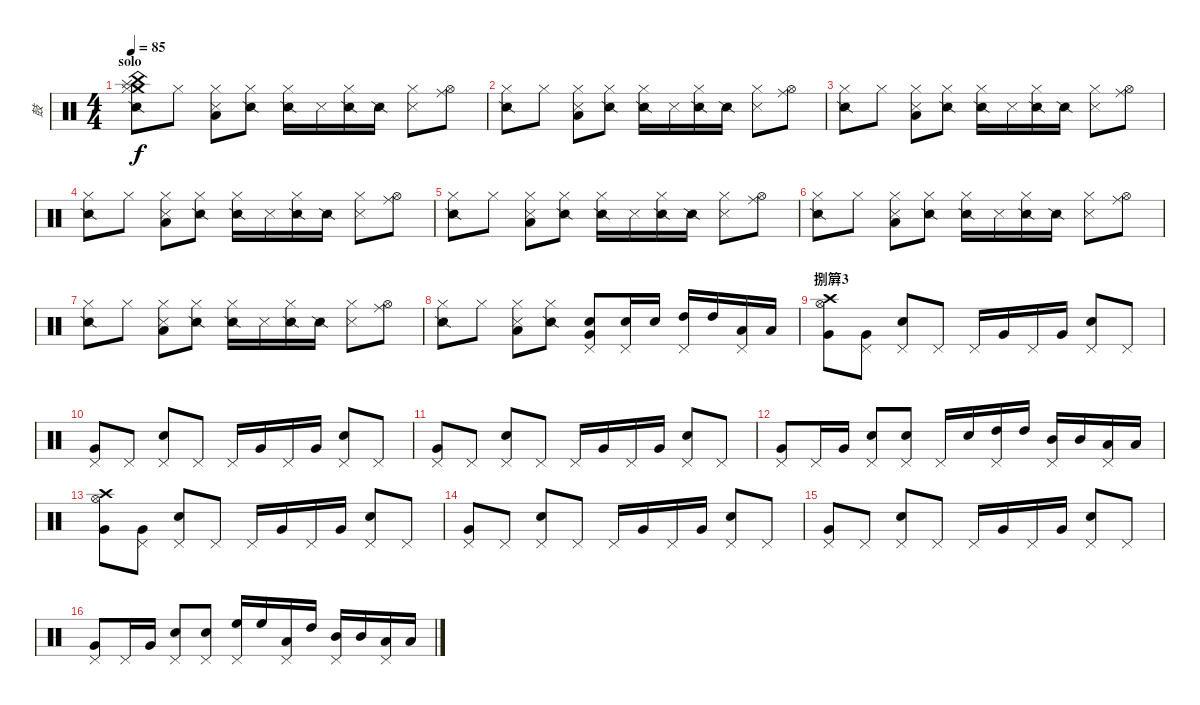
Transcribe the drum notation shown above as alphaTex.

\track ("鼓" "鼓") {instrument percussion}
\staff {score}
\articulation defaults
\ts (4 4)
\section ("" "solo")
\tempo 85
\clef neutral
\ks c
("Crash medium (hit)" "Splash (hit)" "China (hit)" "Snare (side stick) 2" "Hi-Hat (closed)").8{dy f} "Hi-Hat (closed)".8 ("Metronome (hit)" "Low Floor Tom (hit)" "Hi-Hat (closed)").8 ("Snare (side stick) 2" "Hi-Hat (closed)").8 ("Snare (side stick) 2" "Hi-Hat (closed)").16 "Metronome (hit)".16 ("Snare (side stick) 2" "Hi-Hat (closed)").16 "Snare (side stick) 2".16 ("Metronome (hit)" "Hi-Hat (closed)").8 ("Ride (middle)" "Hi-Hat (open)").8 |
("Snare (side stick) 2" "Hi-Hat (closed)").8 "Hi-Hat (closed)".8 ("Metronome (hit)" "Low Floor Tom (hit)" "Hi-Hat (closed)").8 ("Snare (side stick) 2" "Hi-Hat (closed)").8 ("Snare (side stick) 2" "Hi-Hat (closed)").16 "Metronome (hit)".16 ("Snare (side stick) 2" "Hi-Hat (closed)").16 "Snare (side stick) 2".16 ("Metronome (hit)" "Hi-Hat (closed)").8 ("Ride (middle)" "Hi-Hat (open)").8 |
("Snare (side stick) 2" "Hi-Hat (closed)").8 "Hi-Hat (closed)".8 ("Metronome (hit)" "Low Floor Tom (hit)" "Hi-Hat (closed)").8 ("Snare (side stick) 2" "Hi-Hat (closed)").8 ("Snare (side stick) 2" "Hi-Hat (closed)").16 "Metronome (hit)".16 ("Snare (side stick) 2" "Hi-Hat (closed)").16 "Snare (side stick) 2".16 ("Metronome (hit)" "Hi-Hat (closed)").8 ("Ride (middle)" "Hi-Hat (open)").8 |
("Snare (side stick) 2" "Hi-Hat (closed)").8 "Hi-Hat (closed)".8 ("Metronome (hit)" "Low Floor Tom (hit)" "Hi-Hat (closed)").8 ("Snare (side stick) 2" "Hi-Hat (closed)").8 ("Snare (side stick) 2" "Hi-Hat (closed)").16 "Metronome (hit)".16 ("Snare (side stick) 2" "Hi-Hat (closed)").16 "Snare (side stick) 2".16 ("Metronome (hit)" "Hi-Hat (closed)").8 ("Ride (middle)" "Hi-Hat (open)").8 |
("Snare (side stick) 2" "Hi-Hat (closed)").8 "Hi-Hat (closed)".8 ("Metronome (hit)" "Low Floor Tom (hit)" "Hi-Hat (closed)").8 ("Snare (side stick) 2" "Hi-Hat (closed)").8 ("Snare (side stick) 2" "Hi-Hat (closed)").16 "Metronome (hit)".16 ("Snare (side stick) 2" "Hi-Hat (closed)").16 "Snare (side stick) 2".16 ("Metronome (hit)" "Hi-Hat (closed)").8 ("Ride (middle)" "Hi-Hat (open)").8 |
("Snare (side stick) 2" "Hi-Hat (closed)").8 "Hi-Hat (closed)".8 ("Metronome (hit)" "Low Floor Tom (hit)" "Hi-Hat (closed)").8 ("Snare (side stick) 2" "Hi-Hat (closed)").8 ("Snare (side stick) 2" "Hi-Hat (closed)").16 "Metronome (hit)".16 ("Snare (side stick) 2" "Hi-Hat (closed)").16 "Snare (side stick) 2".16 ("Metronome (hit)" "Hi-Hat (closed)").8 ("Ride (middle)" "Hi-Hat (open)").8 |
("Snare (side stick) 2" "Hi-Hat (closed)").8 "Hi-Hat (closed)".8 ("Metronome (hit)" "Low Floor Tom (hit)" "Hi-Hat (closed)").8 ("Snare (side stick) 2" "Hi-Hat (closed)").8 ("Snare (side stick) 2" "Hi-Hat (closed)").16 "Metronome (hit)".16 ("Snare (side stick) 2" "Hi-Hat (closed)").16 "Snare (side stick) 2".16 ("Metronome (hit)" "Hi-Hat (closed)").8 ("Ride (middle)" "Hi-Hat (open)").8 |
("Snare (side stick) 2" "Hi-Hat (closed)").8 "Hi-Hat (closed)".8 ("Metronome (hit)" "Low Floor Tom (hit)" "Hi-Hat (closed)").8 ("Snare (side stick) 2" "Hi-Hat (closed)").8 ("Snare (hit) 2" "Very Low Tom (hit)" "Pedal Hi-Hat (hit)").8 ("Snare (hit) 2" "Pedal Hi-Hat (hit)").16 "Snare (hit) 2".16 ("High Tom (hit)" "Pedal Hi-Hat (hit)").16 "High Tom (hit)".16 ("Low Tom (hit)" "Pedal Hi-Hat (hit)").16 "Low Tom (hit)".16 |
\section ("" "捌簈3")
("Crash high (hit)" "Very Low Tom (hit)" "Hi-Hat (open)").8 ("Very Low Tom (hit)" "Pedal Hi-Hat (hit)").8 ("Snare (hit) 2" "Pedal Hi-Hat (hit)").8 "Pedal Hi-Hat (hit)".8 "Pedal Hi-Hat (hit)".16 "Very Low Tom (hit)".16 "Pedal Hi-Hat (hit)".16 "Very Low Tom (hit)".16 ("Snare (hit) 2" "Pedal Hi-Hat (hit)").8 "Pedal Hi-Hat (hit)".8 |
("Very Low Tom (hit)" "Pedal Hi-Hat (hit)").8 "Pedal Hi-Hat (hit)".8 ("Snare (hit) 2" "Pedal Hi-Hat (hit)").8 "Pedal Hi-Hat (hit)".8 "Pedal Hi-Hat (hit)".16 "Very Low Tom (hit)".16 "Pedal Hi-Hat (hit)".16 "Very Low Tom (hit)".16 ("Snare (hit) 2" "Pedal Hi-Hat (hit)").8 "Pedal Hi-Hat (hit)".8 |
("Very Low Tom (hit)" "Pedal Hi-Hat (hit)").8 "Pedal Hi-Hat (hit)".8 ("Snare (hit) 2" "Pedal Hi-Hat (hit)").8 "Pedal Hi-Hat (hit)".8 "Pedal Hi-Hat (hit)".16 "Very Low Tom (hit)".16 "Pedal Hi-Hat (hit)".16 "Very Low Tom (hit)".16 ("Snare (hit) 2" "Pedal Hi-Hat (hit)").8 "Pedal Hi-Hat (hit)".8 |
("Very Low Tom (hit)" "Pedal Hi-Hat (hit)").8 "Pedal Hi-Hat (hit)".16 "Very Low Tom (hit)".16 ("Snare (hit) 2" "Pedal Hi-Hat (hit)").8 ("Snare (hit) 2" "Pedal Hi-Hat (hit)").8 "Pedal Hi-Hat (hit)".16 "Snare (hit) 2".16 ("High Tom (hit)" "Pedal Hi-Hat (hit)").16 "High Tom (hit)".16 ("Mid Tom (hit)" "Pedal Hi-Hat (hit)").16 "Mid Tom (hit)".16 ("Low Tom (hit)" "Pedal Hi-Hat (hit)").16 "Low Tom (hit)".16 |
("Crash high (hit)" "Very Low Tom (hit)" "Hi-Hat (open)").8 ("Very Low Tom (hit)" "Pedal Hi-Hat (hit)").8 ("Snare (hit) 2" "Pedal Hi-Hat (hit)").8 "Pedal Hi-Hat (hit)".8 "Pedal Hi-Hat (hit)".16 "Very Low Tom (hit)".16 "Pedal Hi-Hat (hit)".16 "Very Low Tom (hit)".16 ("Snare (hit) 2" "Pedal Hi-Hat (hit)").8 "Pedal Hi-Hat (hit)".8 |
("Very Low Tom (hit)" "Pedal Hi-Hat (hit)").8 "Pedal Hi-Hat (hit)".8 ("Snare (hit) 2" "Pedal Hi-Hat (hit)").8 "Pedal Hi-Hat (hit)".8 "Pedal Hi-Hat (hit)".16 "Very Low Tom (hit)".16 "Pedal Hi-Hat (hit)".16 "Very Low Tom (hit)".16 ("Snare (hit) 2" "Pedal Hi-Hat (hit)").8 "Pedal Hi-Hat (hit)".8 |
("Very Low Tom (hit)" "Pedal Hi-Hat (hit)").8 "Pedal Hi-Hat (hit)".8 ("Snare (hit) 2" "Pedal Hi-Hat (hit)").8 "Pedal Hi-Hat (hit)".8 "Pedal Hi-Hat (hit)".16 "Very Low Tom (hit)".16 "Pedal Hi-Hat (hit)".16 "Very Low Tom (hit)".16 ("Snare (hit) 2" "Pedal Hi-Hat (hit)").8 "Pedal Hi-Hat (hit)".8 |
("Very Low Tom (hit)" "Pedal Hi-Hat (hit)").8 "Pedal Hi-Hat (hit)".16 "Very Low Tom (hit)".16 ("Snare (hit) 2" "Pedal Hi-Hat (hit)").8 ("Snare (hit) 2" "Pedal Hi-Hat (hit)").8 ("High Floor Tom (hit)" "Pedal Hi-Hat (hit)").16 "High Floor Tom (hit)".16 ("Low Tom (hit)" "Pedal Hi-Hat (hit)").16 "High Tom (hit)".16 ("Mid Tom (hit)" "Pedal Hi-Hat (hit)").16 "Mid Tom (hit)".16 ("Low Tom (hit)" "Pedal Hi-Hat (hit)").16 "Low Tom (hit)".16
